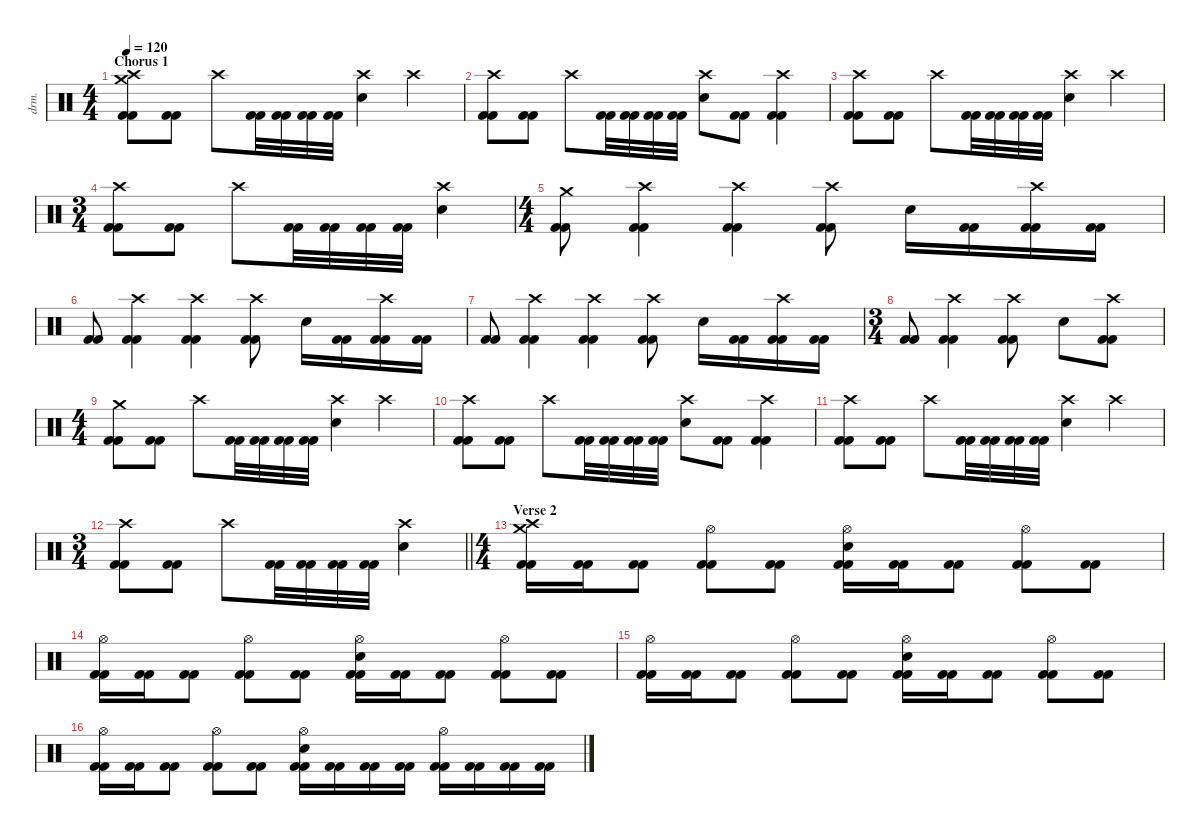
\defaultSystemsLayout 4
\hideDynamics
\bracketExtendMode nobrackets
\otherSystemsTrackNameOrientation horizontal
\track ("Chris Adler" "drm.") {instrument percussion}
\staff {score}
\articulation defaults
\ts (4 4)
\section ("" "Chorus 1")
\tempo 120
\clef neutral
\ks c
("Crash medium (hit)" "Crash high (hit)" "Kick (hit) 2" "Kick (hit) 2").8{dy f} ("Kick (hit) 2" "Kick (hit) 2").8 "Crash high (hit)".8 ("Kick (hit) 2" "Kick (hit) 2").32 ("Kick (hit) 2" "Kick (hit) 2").32 ("Kick (hit) 2" "Kick (hit) 2").32 ("Kick (hit) 2" "Kick (hit) 2").32 ("Crash high (hit)" "Snare (hit) 2").4 "Crash high (hit)".4 |
("Crash high (hit)" "Kick (hit) 2" "Kick (hit) 2").8 ("Kick (hit) 2" "Kick (hit) 2").8 "Crash high (hit)".8 ("Kick (hit) 2" "Kick (hit) 2").32 ("Kick (hit) 2" "Kick (hit) 2").32 ("Kick (hit) 2" "Kick (hit) 2").32 ("Kick (hit) 2" "Kick (hit) 2").32 ("Crash high (hit)" "Snare (hit) 2").8 ("Kick (hit) 2" "Kick (hit) 2").8 ("Crash high (hit)" "Kick (hit) 2" "Kick (hit) 2").4 |
("Crash high (hit)" "Kick (hit) 2" "Kick (hit) 2").8 ("Kick (hit) 2" "Kick (hit) 2").8 "Crash high (hit)".8 ("Kick (hit) 2" "Kick (hit) 2").32 ("Kick (hit) 2" "Kick (hit) 2").32 ("Kick (hit) 2" "Kick (hit) 2").32 ("Kick (hit) 2" "Kick (hit) 2").32 ("Crash high (hit)" "Snare (hit) 2").4 "Crash high (hit)".4 |
\ts (3 4)
\beaming (8 2 2 2)
("Crash high (hit)" "Kick (hit) 2" "Kick (hit) 2").8 ("Kick (hit) 2" "Kick (hit) 2").8 "Crash high (hit)".8 ("Kick (hit) 2" "Kick (hit) 2").32 ("Kick (hit) 2" "Kick (hit) 2").32 ("Kick (hit) 2" "Kick (hit) 2").32 ("Kick (hit) 2" "Kick (hit) 2").32 ("Crash high (hit)" "Snare (hit) 2").4 |
\ts (4 4)
\beaming (8 2 2 2 2)
("Crash medium (hit)" "Kick (hit) 2" "Kick (hit) 2").8 ("Crash high (hit)" "Kick (hit) 2" "Kick (hit) 2").4 ("Crash high (hit)" "Kick (hit) 2" "Kick (hit) 2").4 ("Crash high (hit)" "Kick (hit) 2" "Kick (hit) 2").8 "Snare (hit) 2".16 ("Kick (hit) 2" "Kick (hit) 2").16 ("Crash high (hit)" "Kick (hit) 2" "Kick (hit) 2").16 ("Kick (hit) 2" "Kick (hit) 2").16 |
("Kick (hit) 2" "Kick (hit) 2").8 ("Crash high (hit)" "Kick (hit) 2" "Kick (hit) 2").4 ("Crash high (hit)" "Kick (hit) 2" "Kick (hit) 2").4 ("Crash high (hit)" "Kick (hit) 2" "Kick (hit) 2").8 "Snare (hit) 2".16 ("Kick (hit) 2" "Kick (hit) 2").16 ("Crash high (hit)" "Kick (hit) 2" "Kick (hit) 2").16 ("Kick (hit) 2" "Kick (hit) 2").16 |
("Kick (hit) 2" "Kick (hit) 2").8 ("Crash high (hit)" "Kick (hit) 2" "Kick (hit) 2").4 ("Crash high (hit)" "Kick (hit) 2" "Kick (hit) 2").4 ("Crash high (hit)" "Kick (hit) 2" "Kick (hit) 2").8 "Snare (hit) 2".16 ("Kick (hit) 2" "Kick (hit) 2").16 ("Crash high (hit)" "Kick (hit) 2" "Kick (hit) 2").16 ("Kick (hit) 2" "Kick (hit) 2").16 |
\ts (3 4)
\beaming (8 2 2 2)
("Kick (hit) 2" "Kick (hit) 2").8 ("Crash high (hit)" "Kick (hit) 2" "Kick (hit) 2").4 ("Crash high (hit)" "Kick (hit) 2" "Kick (hit) 2").8 "Snare (hit) 2".8 ("Crash high (hit)" "Kick (hit) 2" "Kick (hit) 2").8 |
\ts (4 4)
\beaming (8 2 2 2 2)
("Crash medium (hit)" "Kick (hit) 2" "Kick (hit) 2").8 ("Kick (hit) 2" "Kick (hit) 2").8 "Crash high (hit)".8 ("Kick (hit) 2" "Kick (hit) 2").32 ("Kick (hit) 2" "Kick (hit) 2").32 ("Kick (hit) 2" "Kick (hit) 2").32 ("Kick (hit) 2" "Kick (hit) 2").32 ("Crash high (hit)" "Snare (hit) 2").4 "Crash high (hit)".4 |
("Crash high (hit)" "Kick (hit) 2" "Kick (hit) 2").8 ("Kick (hit) 2" "Kick (hit) 2").8 "Crash high (hit)".8 ("Kick (hit) 2" "Kick (hit) 2").32 ("Kick (hit) 2" "Kick (hit) 2").32 ("Kick (hit) 2" "Kick (hit) 2").32 ("Kick (hit) 2" "Kick (hit) 2").32 ("Crash high (hit)" "Snare (hit) 2").8 ("Kick (hit) 2" "Kick (hit) 2").8 ("Crash high (hit)" "Kick (hit) 2" "Kick (hit) 2").4 |
("Crash high (hit)" "Kick (hit) 2" "Kick (hit) 2").8 ("Kick (hit) 2" "Kick (hit) 2").8 "Crash high (hit)".8 ("Kick (hit) 2" "Kick (hit) 2").32 ("Kick (hit) 2" "Kick (hit) 2").32 ("Kick (hit) 2" "Kick (hit) 2").32 ("Kick (hit) 2" "Kick (hit) 2").32 ("Crash high (hit)" "Snare (hit) 2").4 "Crash high (hit)".4 |
\ts (3 4)
\beaming (8 2 2 2)
\barLineRight lightlight
("Crash high (hit)" "Kick (hit) 2" "Kick (hit) 2").8 ("Kick (hit) 2" "Kick (hit) 2").8 "Crash high (hit)".8 ("Kick (hit) 2" "Kick (hit) 2").32 ("Kick (hit) 2" "Kick (hit) 2").32 ("Kick (hit) 2" "Kick (hit) 2").32 ("Kick (hit) 2" "Kick (hit) 2").32 ("Crash high (hit)" "Snare (hit) 2").4 |
\ts (4 4)
\beaming (8 2 2 2 2)
\section ("" "Verse 2")
("Crash medium (hit)" "Crash high (hit)" "Kick (hit) 2" "Kick (hit) 2").16 ("Kick (hit) 2" "Kick (hit) 2").16 ("Kick (hit) 2" "Kick (hit) 2").8 ("Hi-Hat (open)" "Kick (hit) 2" "Kick (hit) 2").8 ("Kick (hit) 2" "Kick (hit) 2").8 ("Hi-Hat (open)" "Snare (hit) 2" "Kick (hit) 2" "Kick (hit) 2").16 ("Kick (hit) 2" "Kick (hit) 2").16 ("Kick (hit) 2" "Kick (hit) 2").8 ("Hi-Hat (open)" "Kick (hit) 2" "Kick (hit) 2").8 ("Kick (hit) 2" "Kick (hit) 2").8 |
("Hi-Hat (open)" "Kick (hit) 2" "Kick (hit) 2").16 ("Kick (hit) 2" "Kick (hit) 2").16 ("Kick (hit) 2" "Kick (hit) 2").8 ("Hi-Hat (open)" "Kick (hit) 2" "Kick (hit) 2").8 ("Kick (hit) 2" "Kick (hit) 2").8 ("Hi-Hat (open)" "Snare (hit) 2" "Kick (hit) 2" "Kick (hit) 2").16 ("Kick (hit) 2" "Kick (hit) 2").16 ("Kick (hit) 2" "Kick (hit) 2").8 ("Hi-Hat (open)" "Kick (hit) 2" "Kick (hit) 2").8 ("Kick (hit) 2" "Kick (hit) 2").8 |
("Hi-Hat (open)" "Kick (hit) 2" "Kick (hit) 2").16 ("Kick (hit) 2" "Kick (hit) 2").16 ("Kick (hit) 2" "Kick (hit) 2").8 ("Hi-Hat (open)" "Kick (hit) 2" "Kick (hit) 2").8 ("Kick (hit) 2" "Kick (hit) 2").8 ("Hi-Hat (open)" "Snare (hit) 2" "Kick (hit) 2" "Kick (hit) 2").16 ("Kick (hit) 2" "Kick (hit) 2").16 ("Kick (hit) 2" "Kick (hit) 2").8 ("Hi-Hat (open)" "Kick (hit) 2" "Kick (hit) 2").8 ("Kick (hit) 2" "Kick (hit) 2").8 |
("Hi-Hat (open)" "Kick (hit) 2" "Kick (hit) 2").16 ("Kick (hit) 2" "Kick (hit) 2").16 ("Kick (hit) 2" "Kick (hit) 2").8 ("Hi-Hat (open)" "Kick (hit) 2" "Kick (hit) 2").8 ("Kick (hit) 2" "Kick (hit) 2").8 ("Hi-Hat (open)" "Snare (hit) 2" "Kick (hit) 2" "Kick (hit) 2").16 ("Kick (hit) 2" "Kick (hit) 2").16 ("Kick (hit) 2" "Kick (hit) 2").16 ("Kick (hit) 2" "Kick (hit) 2").16 ("Hi-Hat (open)" "Kick (hit) 2" "Kick (hit) 2").16 ("Kick (hit) 2" "Kick (hit) 2").16 ("Kick (hit) 2" "Kick (hit) 2").16 ("Kick (hit) 2" "Kick (hit) 2").16
